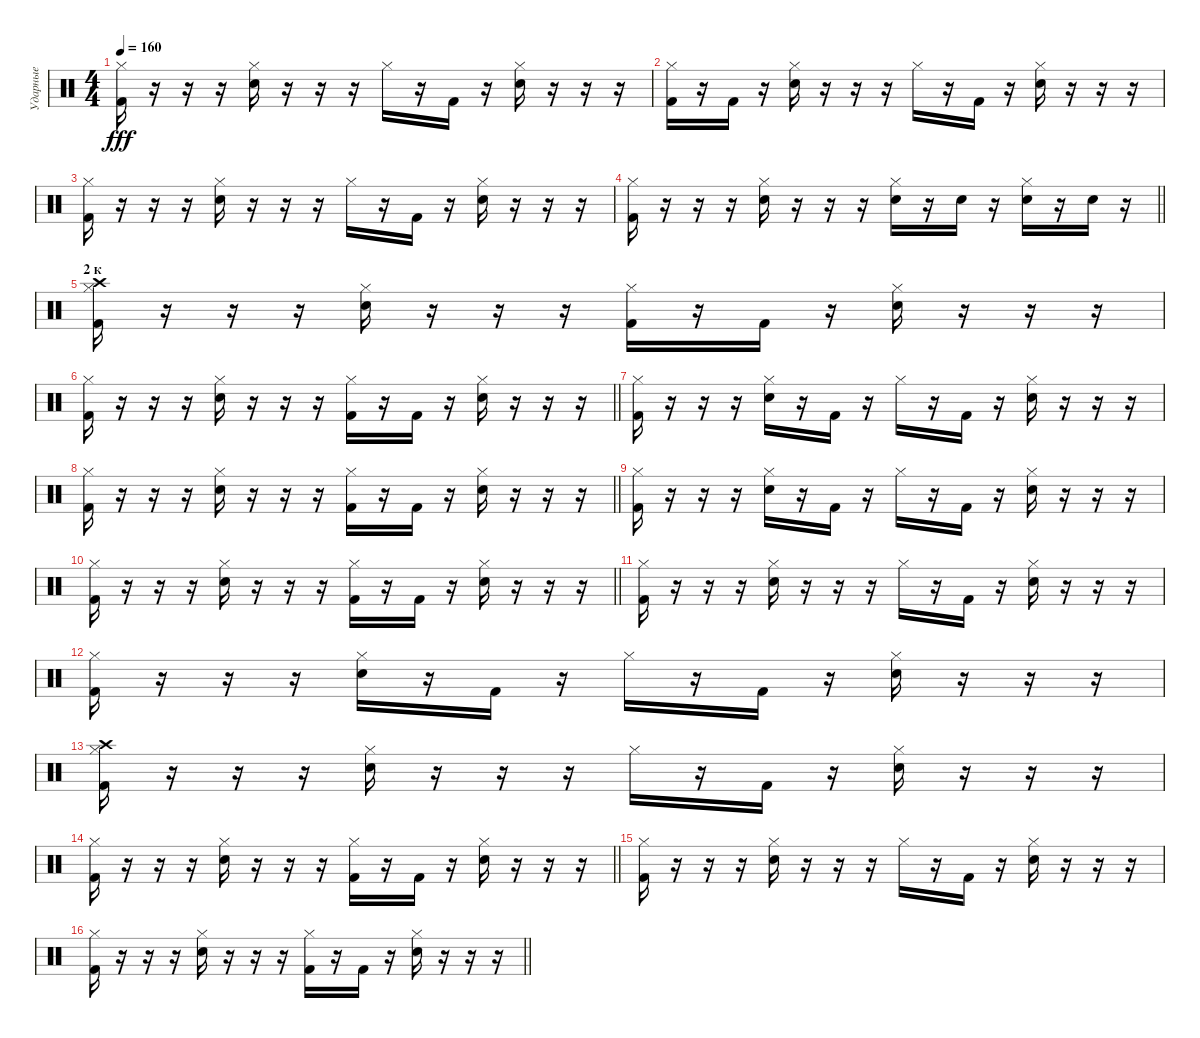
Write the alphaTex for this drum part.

\track ("Ударные" "Ударные") {instrument percussion}
\staff {score}
\articulation defaults
\ts (4 4)
\tempo 160
\clef neutral
\ks c
("Kick (hit) 2" "Hi-Hat (closed)").16{dy fff} r.16 r.16 r.16 ("Snare (hit) 2" "Hi-Hat (closed)").16 r.16 r.16 r.16 "Hi-Hat (closed)".16 r.16 "Kick (hit) 2".16 r.16 ("Snare (hit) 2" "Hi-Hat (closed)").16 r.16 r.16 r.16 |
("Kick (hit) 2" "Hi-Hat (closed)").16 r.16 "Kick (hit) 2".16 r.16 ("Snare (hit) 2" "Hi-Hat (closed)").16 r.16 r.16 r.16 "Hi-Hat (closed)".16 r.16 "Kick (hit) 2".16 r.16 ("Snare (hit) 2" "Hi-Hat (closed)").16 r.16 r.16 r.16 |
("Kick (hit) 2" "Hi-Hat (closed)").16 r.16 r.16 r.16 ("Snare (hit) 2" "Hi-Hat (closed)").16 r.16 r.16 r.16 "Hi-Hat (closed)".16 r.16 "Kick (hit) 2".16 r.16 ("Snare (hit) 2" "Hi-Hat (closed)").16 r.16 r.16 r.16 |
\barLineRight lightlight
("Kick (hit) 2" "Hi-Hat (closed)").16 r.16 r.16 r.16 ("Snare (hit) 2" "Hi-Hat (closed)").16 r.16 r.16 r.16 ("Electric Snare (hit)" "Hi-Hat (closed)").16 r.16 "Electric Snare (hit)".16 r.16 ("Electric Snare (hit)" "Hi-Hat (closed)").16 r.16 "Electric Snare (hit)".16 r.16 |
\section ("" "2 к")
("Kick (hit) 2" "Hi-Hat (closed)" "Crash high (hit)").16 r.16 r.16 r.16 ("Snare (hit) 2" "Hi-Hat (closed)").16 r.16 r.16 r.16 ("Kick (hit) 2" "Hi-Hat (closed)").16 r.16 "Kick (hit) 2".16 r.16 ("Snare (hit) 2" "Hi-Hat (closed)").16 r.16 r.16 r.16 |
\barLineRight lightlight
("Kick (hit) 2" "Hi-Hat (closed)").16 r.16 r.16 r.16 ("Snare (hit) 2" "Hi-Hat (closed)").16 r.16 r.16 r.16 ("Kick (hit) 2" "Hi-Hat (closed)").16 r.16 "Kick (hit) 2".16 r.16 ("Snare (hit) 2" "Hi-Hat (closed)").16 r.16 r.16 r.16 |
("Kick (hit) 2" "Hi-Hat (closed)").16 r.16 r.16 r.16 ("Snare (hit) 2" "Hi-Hat (closed)").16 r.16 "Kick (hit) 2".16 r.16 "Hi-Hat (closed)".16 r.16 "Kick (hit) 2".16 r.16 ("Snare (hit) 2" "Hi-Hat (closed)").16 r.16 r.16 r.16 |
\barLineRight lightlight
("Kick (hit) 2" "Hi-Hat (closed)").16 r.16 r.16 r.16 ("Snare (hit) 2" "Hi-Hat (closed)").16 r.16 r.16 r.16 ("Kick (hit) 2" "Hi-Hat (closed)").16 r.16 "Kick (hit) 2".16 r.16 ("Snare (hit) 2" "Hi-Hat (closed)").16 r.16 r.16 r.16 |
("Kick (hit) 2" "Hi-Hat (closed)").16 r.16 r.16 r.16 ("Snare (hit) 2" "Hi-Hat (closed)").16 r.16 "Kick (hit) 2".16 r.16 "Hi-Hat (closed)".16 r.16 "Kick (hit) 2".16 r.16 ("Snare (hit) 2" "Hi-Hat (closed)").16 r.16 r.16 r.16 |
\barLineRight lightlight
("Kick (hit) 2" "Hi-Hat (closed)").16 r.16 r.16 r.16 ("Snare (hit) 2" "Hi-Hat (closed)").16 r.16 r.16 r.16 ("Kick (hit) 2" "Hi-Hat (closed)").16 r.16 "Kick (hit) 2".16 r.16 ("Snare (hit) 2" "Hi-Hat (closed)").16 r.16 r.16 r.16 |
("Kick (hit) 2" "Hi-Hat (closed)").16 r.16 r.16 r.16 ("Snare (hit) 2" "Hi-Hat (closed)").16 r.16 r.16 r.16 "Hi-Hat (closed)".16 r.16 "Kick (hit) 2".16 r.16 ("Snare (hit) 2" "Hi-Hat (closed)").16 r.16 r.16 r.16 |
("Kick (hit) 2" "Hi-Hat (closed)").16 r.16 r.16 r.16 ("Snare (hit) 2" "Hi-Hat (closed)").16 r.16 "Kick (hit) 2".16 r.16 "Hi-Hat (closed)".16 r.16 "Kick (hit) 2".16 r.16 ("Snare (hit) 2" "Hi-Hat (closed)").16 r.16 r.16 r.16 |
("Kick (hit) 2" "Hi-Hat (closed)" "Crash high (hit)").16 r.16 r.16 r.16 ("Snare (hit) 2" "Hi-Hat (closed)").16 r.16 r.16 r.16 "Hi-Hat (closed)".16 r.16 "Kick (hit) 2".16 r.16 ("Snare (hit) 2" "Hi-Hat (closed)").16 r.16 r.16 r.16 |
\barLineRight lightlight
("Kick (hit) 2" "Hi-Hat (closed)").16 r.16 r.16 r.16 ("Snare (hit) 2" "Hi-Hat (closed)").16 r.16 r.16 r.16 ("Kick (hit) 2" "Hi-Hat (closed)").16 r.16 "Kick (hit) 2".16 r.16 ("Snare (hit) 2" "Hi-Hat (closed)").16 r.16 r.16 r.16 |
("Kick (hit) 2" "Hi-Hat (closed)").16 r.16 r.16 r.16 ("Snare (hit) 2" "Hi-Hat (closed)").16 r.16 r.16 r.16 "Hi-Hat (closed)".16 r.16 "Kick (hit) 2".16 r.16 ("Snare (hit) 2" "Hi-Hat (closed)").16 r.16 r.16 r.16 |
\barLineRight lightlight
("Kick (hit) 2" "Hi-Hat (closed)").16 r.16 r.16 r.16 ("Snare (hit) 2" "Hi-Hat (closed)").16 r.16 r.16 r.16 ("Kick (hit) 2" "Hi-Hat (closed)").16 r.16 "Kick (hit) 2".16 r.16 ("Snare (hit) 2" "Hi-Hat (closed)").16 r.16 r.16 r.16
